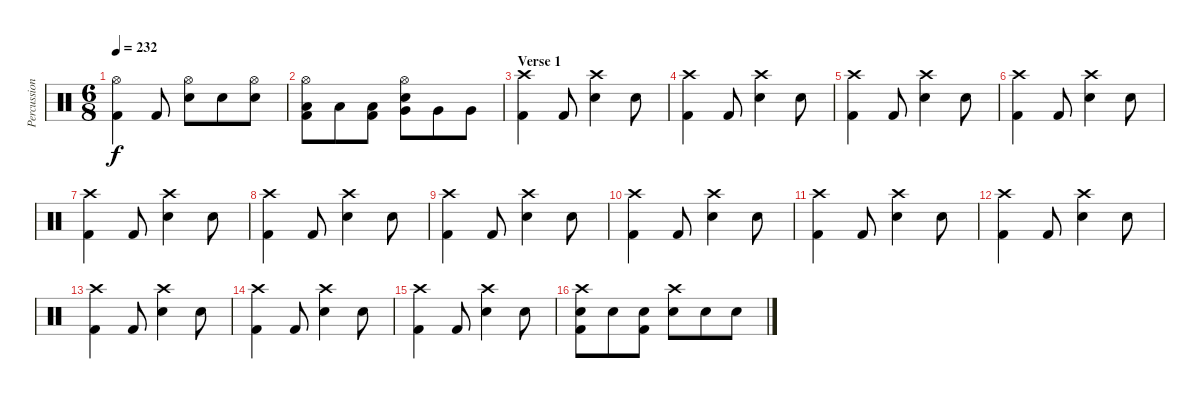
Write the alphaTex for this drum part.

\track ("Percussion" "Percussion") {instrument percussion}
\staff {score}
\articulation defaults
\ts (6 8)
\tempo 232
\clef neutral
\ks c
("Hi-Hat (open)" "Kick (hit) 2").4{dy f} "Kick (hit) 2".8 ("Hi-Hat (open)" "Electric Snare (hit)").8 "Electric Snare (hit)".8 ("Hi-Hat (open)" "Electric Snare (hit)").8 |
("Hi-Hat (open)" "Low Tom (hit)" "Kick (hit) 2").8 "Low Tom (hit)".8 ("Low Tom (hit)" "Kick (hit) 2").8 ("Hi-Hat (open)" "Electric Snare (hit)" "Very Low Tom (hit)").8 "Very Low Tom (hit)".8 "Very Low Tom (hit)".8 |
\section ("" "Verse 1")
("Crash high (hit)" "Kick (hit) 2").4 "Kick (hit) 2".8 ("Crash high (hit)" "Electric Snare (hit)").4 "Electric Snare (hit)".8 |
("Crash high (hit)" "Kick (hit) 2").4 "Kick (hit) 2".8 ("Crash high (hit)" "Electric Snare (hit)").4 "Electric Snare (hit)".8 |
("Crash high (hit)" "Kick (hit) 2").4 "Kick (hit) 2".8 ("Crash high (hit)" "Electric Snare (hit)").4 "Electric Snare (hit)".8 |
("Crash high (hit)" "Kick (hit) 2").4 "Kick (hit) 2".8 ("Crash high (hit)" "Electric Snare (hit)").4 "Electric Snare (hit)".8 |
("Crash high (hit)" "Kick (hit) 2").4 "Kick (hit) 2".8 ("Crash high (hit)" "Electric Snare (hit)").4 "Electric Snare (hit)".8 |
("Crash high (hit)" "Kick (hit) 2").4 "Kick (hit) 2".8 ("Crash high (hit)" "Electric Snare (hit)").4 "Electric Snare (hit)".8 |
("Crash high (hit)" "Kick (hit) 2").4 "Kick (hit) 2".8 ("Crash high (hit)" "Electric Snare (hit)").4 "Electric Snare (hit)".8 |
("Crash high (hit)" "Kick (hit) 2").4 "Kick (hit) 2".8 ("Crash high (hit)" "Electric Snare (hit)").4 "Electric Snare (hit)".8 |
("Crash high (hit)" "Kick (hit) 2").4 "Kick (hit) 2".8 ("Crash high (hit)" "Electric Snare (hit)").4 "Electric Snare (hit)".8 |
("Crash high (hit)" "Kick (hit) 2").4 "Kick (hit) 2".8 ("Crash high (hit)" "Electric Snare (hit)").4 "Electric Snare (hit)".8 |
("Crash high (hit)" "Kick (hit) 2").4 "Kick (hit) 2".8 ("Crash high (hit)" "Electric Snare (hit)").4 "Electric Snare (hit)".8 |
("Crash high (hit)" "Kick (hit) 2").4 "Kick (hit) 2".8 ("Crash high (hit)" "Electric Snare (hit)").4 "Electric Snare (hit)".8 |
("Crash high (hit)" "Kick (hit) 2").4 "Kick (hit) 2".8 ("Crash high (hit)" "Electric Snare (hit)").4 "Electric Snare (hit)".8 |
("Crash high (hit)" "Electric Snare (hit)" "Kick (hit) 2").8 "Electric Snare (hit)".8 ("Electric Snare (hit)" "Kick (hit) 2").8 ("Crash high (hit)" "Electric Snare (hit)").8 "Electric Snare (hit)".8 "Electric Snare (hit)".8
